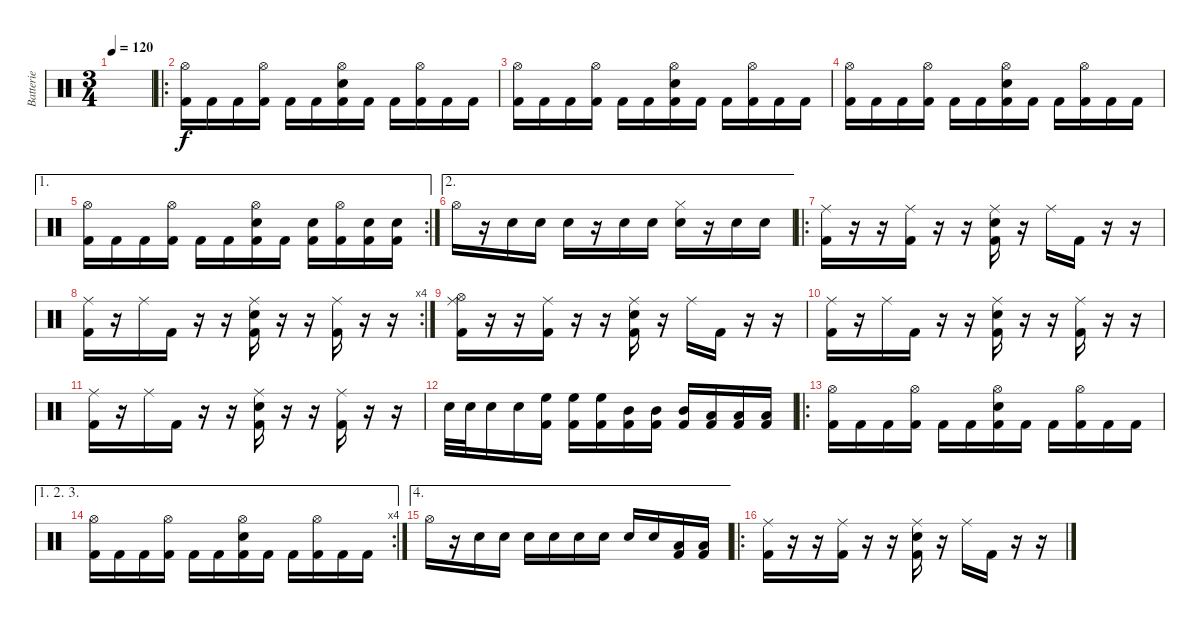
\track ("Batterie" "Batterie") {instrument percussion}
\staff {score}
\articulation defaults
\ts (3 4)
\tempo 120
\clef neutral
\ks c
|
\ro
("Hi-Hat (open)" "Kick (hit) 2").16 "Kick (hit) 2".16 "Kick (hit) 2".16 ("Hi-Hat (open)" "Kick (hit) 2").16 "Kick (hit) 2".16 "Kick (hit) 2".16 ("Hi-Hat (open)" "Electric Snare (hit)" "Kick (hit) 2").16 "Kick (hit) 2".16 "Kick (hit) 2".16 ("Hi-Hat (open)" "Kick (hit) 2").16 "Kick (hit) 2".16 "Kick (hit) 2".16 |
("Hi-Hat (open)" "Kick (hit) 2").16 "Kick (hit) 2".16 "Kick (hit) 2".16 ("Hi-Hat (open)" "Kick (hit) 2").16 "Kick (hit) 2".16 "Kick (hit) 2".16 ("Hi-Hat (open)" "Electric Snare (hit)" "Kick (hit) 2").16 "Kick (hit) 2".16 "Kick (hit) 2".16 ("Hi-Hat (open)" "Kick (hit) 2").16 "Kick (hit) 2".16 "Kick (hit) 2".16 |
("Hi-Hat (open)" "Kick (hit) 2").16 "Kick (hit) 2".16 "Kick (hit) 2".16 ("Hi-Hat (open)" "Kick (hit) 2").16 "Kick (hit) 2".16 "Kick (hit) 2".16 ("Hi-Hat (open)" "Electric Snare (hit)" "Kick (hit) 2").16 "Kick (hit) 2".16 "Kick (hit) 2".16 ("Hi-Hat (open)" "Kick (hit) 2").16 "Kick (hit) 2".16 "Kick (hit) 2".16 |
\ae 1
\rc 2
("Hi-Hat (open)" "Kick (hit) 2").16 "Kick (hit) 2".16 "Kick (hit) 2".16 ("Hi-Hat (open)" "Kick (hit) 2").16 "Kick (hit) 2".16 "Kick (hit) 2".16 ("Hi-Hat (open)" "Electric Snare (hit)" "Kick (hit) 2").16 "Kick (hit) 2".16 ("Electric Snare (hit)" "Kick (hit) 2").16 ("Hi-Hat (open)" "Kick (hit) 2").16 ("Electric Snare (hit)" "Kick (hit) 2").16 ("Electric Snare (hit)" "Kick (hit) 2").16 |
\ae 2 "Hi-Hat (open)".16
r.16 "Electric Snare (hit)".16 "Electric Snare (hit)".16 "Snare (hit) 2".16 r.16 "Electric Snare (hit)".16 "Electric Snare (hit)".16 ("Hi-Hat (closed)" "Snare (hit) 2").16 r.16 "Electric Snare (hit)".16 "Electric Snare (hit)".16 |
\ro
("Ride (middle)" "Kick (hit) 2").16 r.16 r.16 ("Ride (middle)" "Kick (hit) 2").16 r.16 r.16 ("Ride (middle)" "Electric Snare (hit)" "Kick (hit) 2").16 r.16 "Ride (middle)".16 "Kick (hit) 2".16 r.16 r.16 |
\rc 4
("Ride (middle)" "Kick (hit) 2").16 r.16 "Ride (middle)".16 "Kick (hit) 2".16 r.16 r.16 ("Ride (middle)" "Electric Snare (hit)" "Kick (hit) 2").16 r.16 r.16 ("Ride (middle)" "Kick (hit) 2").16 r.16 r.16 |
("Ride (middle)" "Hi-Hat (open)" "Kick (hit) 2").16 r.16 r.16 ("Ride (middle)" "Kick (hit) 2").16 r.16 r.16 ("Ride (middle)" "Electric Snare (hit)" "Kick (hit) 2").16 r.16 "Ride (middle)".16 "Kick (hit) 2".16 r.16 r.16 |
("Ride (middle)" "Kick (hit) 2").16 r.16 "Ride (middle)".16 "Kick (hit) 2".16 r.16 r.16 ("Ride (middle)" "Electric Snare (hit)" "Kick (hit) 2").16 r.16 r.16 ("Ride (middle)" "Kick (hit) 2").16 r.16 r.16 |
("Ride (middle)" "Kick (hit) 2").16 r.16 "Ride (middle)".16 "Kick (hit) 2".16 r.16 r.16 ("Ride (middle)" "Electric Snare (hit)" "Kick (hit) 2").16 r.16 r.16 ("Ride (middle)" "Kick (hit) 2").16 r.16 r.16 |
"Electric Snare (hit)".32 "Electric Snare (hit)".32 "Electric Snare (hit)".16 "Electric Snare (hit)".16 ("High Floor Tom (hit)" "Kick (hit) 2").16 ("High Floor Tom (hit)" "Kick (hit) 2").16 ("High Floor Tom (hit)" "Kick (hit) 2").16 ("Mid Tom (hit)" "Kick (hit) 2").16 ("Mid Tom (hit)" "Kick (hit) 2").16 ("Mid Tom (hit)" "Kick (hit) 2").16 ("Low Tom (hit)" "Kick (hit) 2").16 ("Low Tom (hit)" "Kick (hit) 2").16 ("Low Tom (hit)" "Kick (hit) 2").16 |
\ro
("Hi-Hat (open)" "Kick (hit) 2").16 "Kick (hit) 2".16 "Kick (hit) 2".16 ("Hi-Hat (open)" "Kick (hit) 2").16 "Kick (hit) 2".16 "Kick (hit) 2".16 ("Hi-Hat (open)" "Electric Snare (hit)" "Kick (hit) 2").16 "Kick (hit) 2".16 "Kick (hit) 2".16 ("Hi-Hat (open)" "Kick (hit) 2").16 "Kick (hit) 2".16 "Kick (hit) 2".16 |
\ae (1 2 3)
\rc 4
("Hi-Hat (open)" "Kick (hit) 2").16 "Kick (hit) 2".16 "Kick (hit) 2".16 ("Hi-Hat (open)" "Kick (hit) 2").16 "Kick (hit) 2".16 "Kick (hit) 2".16 ("Hi-Hat (open)" "Electric Snare (hit)" "Kick (hit) 2").16 "Kick (hit) 2".16 "Kick (hit) 2".16 ("Hi-Hat (open)" "Kick (hit) 2").16 "Kick (hit) 2".16 "Kick (hit) 2".16 |
\ae 4 "Hi-Hat (open)".16
r.16 "Electric Snare (hit)".16 "Electric Snare (hit)".16 "Snare (hit) 2".16 "Snare (hit) 2".16 "Electric Snare (hit)".16 "Electric Snare (hit)".16 "Snare (hit) 2".16 "Snare (hit) 2".16 ("Low Tom (hit)" "Kick (hit) 2").16 ("Low Tom (hit)" "Kick (hit) 2").16 |
\ro
("Ride (middle)" "Kick (hit) 2").16 r.16 r.16 ("Ride (middle)" "Kick (hit) 2").16 r.16 r.16 ("Ride (middle)" "Electric Snare (hit)" "Kick (hit) 2").16 r.16 "Ride (middle)".16 "Kick (hit) 2".16 r.16 r.16
